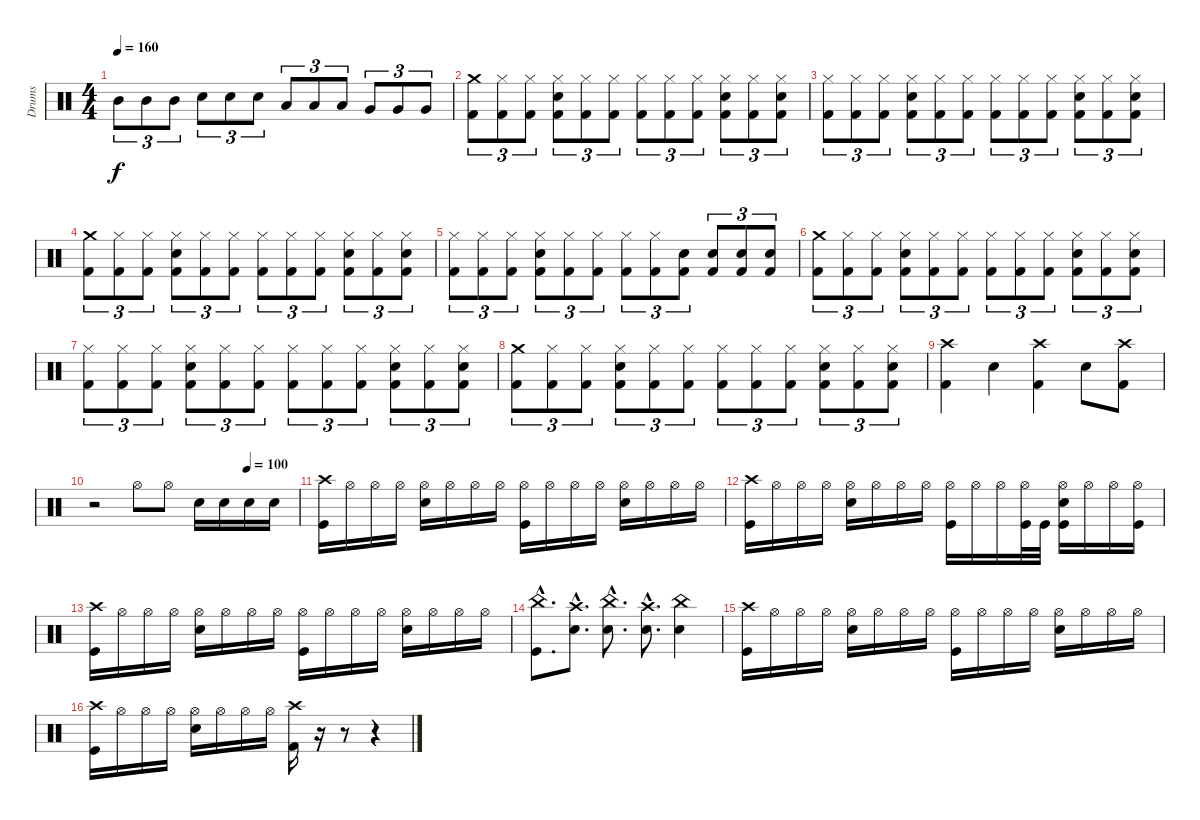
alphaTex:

\track ("Drums" "Drums") {instrument percussion}
\staff {score}
\articulation defaults
\ts (4 4)
\tempo 160
\clef neutral
\ks c "Mid Tom (hit)".8{tu (3 2) dy f} "Mid Tom (hit)".8{tu (3 2)} "Mid Tom (hit)".8{tu (3 2)} "Electric Snare (hit)".8{tu (3 2)} "Electric Snare (hit)".8{tu (3 2)} "Electric Snare (hit)".8{tu (3 2)} "Low Tom (hit)".8{tu (3 2)} "Low Tom (hit)".8{tu (3 2)} "Low Tom (hit)".8{tu (3 2)} "Very Low Tom (hit)".8{tu (3 2)} "Very Low Tom (hit)".8{tu (3 2)} "Very Low Tom (hit)".8{tu (3 2)}
|
("Crash medium (hit)" "Kick (hit) 2").8{tu (3 2)} ("Hi-Hat (closed)" "Kick (hit) 2").8{tu (3 2)} ("Hi-Hat (closed)" "Kick (hit) 2").8{tu (3 2)} ("Hi-Hat (closed)" "Electric Snare (hit)" "Kick (hit) 2").8{tu (3 2)} ("Hi-Hat (closed)" "Kick (hit) 2").8{tu (3 2)} ("Hi-Hat (closed)" "Kick (hit) 2").8{tu (3 2)} ("Hi-Hat (closed)" "Kick (hit) 2").8{tu (3 2)} ("Hi-Hat (closed)" "Kick (hit) 2").8{tu (3 2)} ("Hi-Hat (closed)" "Kick (hit) 2").8{tu (3 2)} ("Hi-Hat (closed)" "Electric Snare (hit)" "Kick (hit) 2").8{tu (3 2)} ("Hi-Hat (closed)" "Kick (hit) 2").8{tu (3 2)} ("Hi-Hat (closed)" "Electric Snare (hit)" "Kick (hit) 2").8{tu (3 2)} |
("Hi-Hat (closed)" "Kick (hit) 2").8{tu (3 2)} ("Hi-Hat (closed)" "Kick (hit) 2").8{tu (3 2)} ("Hi-Hat (closed)" "Kick (hit) 2").8{tu (3 2)} ("Hi-Hat (closed)" "Electric Snare (hit)" "Kick (hit) 2").8{tu (3 2)} ("Hi-Hat (closed)" "Kick (hit) 2").8{tu (3 2)} ("Hi-Hat (closed)" "Kick (hit) 2").8{tu (3 2)} ("Hi-Hat (closed)" "Kick (hit) 2").8{tu (3 2)} ("Hi-Hat (closed)" "Kick (hit) 2").8{tu (3 2)} ("Hi-Hat (closed)" "Kick (hit) 2").8{tu (3 2)} ("Hi-Hat (closed)" "Electric Snare (hit)" "Kick (hit) 2").8{tu (3 2)} ("Hi-Hat (closed)" "Kick (hit) 2").8{tu (3 2)} ("Hi-Hat (closed)" "Electric Snare (hit)" "Kick (hit) 2").8{tu (3 2)} |
("Crash medium (hit)" "Kick (hit) 2").8{tu (3 2)} ("Hi-Hat (closed)" "Kick (hit) 2").8{tu (3 2)} ("Hi-Hat (closed)" "Kick (hit) 2").8{tu (3 2)} ("Hi-Hat (closed)" "Electric Snare (hit)" "Kick (hit) 2").8{tu (3 2)} ("Hi-Hat (closed)" "Kick (hit) 2").8{tu (3 2)} ("Hi-Hat (closed)" "Kick (hit) 2").8{tu (3 2)} ("Hi-Hat (closed)" "Kick (hit) 2").8{tu (3 2)} ("Hi-Hat (closed)" "Kick (hit) 2").8{tu (3 2)} ("Hi-Hat (closed)" "Kick (hit) 2").8{tu (3 2)} ("Hi-Hat (closed)" "Electric Snare (hit)" "Kick (hit) 2").8{tu (3 2)} ("Hi-Hat (closed)" "Kick (hit) 2").8{tu (3 2)} ("Hi-Hat (closed)" "Electric Snare (hit)" "Kick (hit) 2").8{tu (3 2)} |
("Hi-Hat (closed)" "Kick (hit) 2").8{tu (3 2)} ("Hi-Hat (closed)" "Kick (hit) 2").8{tu (3 2)} ("Hi-Hat (closed)" "Kick (hit) 2").8{tu (3 2)} ("Hi-Hat (closed)" "Electric Snare (hit)" "Kick (hit) 2").8{tu (3 2)} ("Hi-Hat (closed)" "Kick (hit) 2").8{tu (3 2)} ("Hi-Hat (closed)" "Kick (hit) 2").8{tu (3 2)} ("Hi-Hat (closed)" "Kick (hit) 2").8{tu (3 2)} ("Hi-Hat (closed)" "Kick (hit) 2").8{tu (3 2)} ("Electric Snare (hit)" "Kick (hit) 2").8{tu (3 2)} ("Electric Snare (hit)" "Kick (hit) 2").8{tu (3 2)} ("Electric Snare (hit)" "Kick (hit) 2").8{tu (3 2)} ("Electric Snare (hit)" "Kick (hit) 2").8{tu (3 2)} |
("Crash medium (hit)" "Kick (hit) 2").8{tu (3 2)} ("Hi-Hat (closed)" "Kick (hit) 2").8{tu (3 2)} ("Hi-Hat (closed)" "Kick (hit) 2").8{tu (3 2)} ("Hi-Hat (closed)" "Electric Snare (hit)" "Kick (hit) 2").8{tu (3 2)} ("Hi-Hat (closed)" "Kick (hit) 2").8{tu (3 2)} ("Hi-Hat (closed)" "Kick (hit) 2").8{tu (3 2)} ("Hi-Hat (closed)" "Kick (hit) 2").8{tu (3 2)} ("Hi-Hat (closed)" "Kick (hit) 2").8{tu (3 2)} ("Hi-Hat (closed)" "Kick (hit) 2").8{tu (3 2)} ("Hi-Hat (closed)" "Electric Snare (hit)" "Kick (hit) 2").8{tu (3 2)} ("Hi-Hat (closed)" "Kick (hit) 2").8{tu (3 2)} ("Hi-Hat (closed)" "Electric Snare (hit)" "Kick (hit) 2").8{tu (3 2)} |
("Hi-Hat (closed)" "Kick (hit) 2").8{tu (3 2)} ("Hi-Hat (closed)" "Kick (hit) 2").8{tu (3 2)} ("Hi-Hat (closed)" "Kick (hit) 2").8{tu (3 2)} ("Hi-Hat (closed)" "Electric Snare (hit)" "Kick (hit) 2").8{tu (3 2)} ("Hi-Hat (closed)" "Kick (hit) 2").8{tu (3 2)} ("Hi-Hat (closed)" "Kick (hit) 2").8{tu (3 2)} ("Hi-Hat (closed)" "Kick (hit) 2").8{tu (3 2)} ("Hi-Hat (closed)" "Kick (hit) 2").8{tu (3 2)} ("Hi-Hat (closed)" "Kick (hit) 2").8{tu (3 2)} ("Hi-Hat (closed)" "Electric Snare (hit)" "Kick (hit) 2").8{tu (3 2)} ("Hi-Hat (closed)" "Kick (hit) 2").8{tu (3 2)} ("Hi-Hat (closed)" "Electric Snare (hit)" "Kick (hit) 2").8{tu (3 2)} |
("Crash medium (hit)" "Kick (hit) 2").8{tu (3 2)} ("Hi-Hat (closed)" "Kick (hit) 2").8{tu (3 2)} ("Hi-Hat (closed)" "Kick (hit) 2").8{tu (3 2)} ("Hi-Hat (closed)" "Electric Snare (hit)" "Kick (hit) 2").8{tu (3 2)} ("Hi-Hat (closed)" "Kick (hit) 2").8{tu (3 2)} ("Hi-Hat (closed)" "Kick (hit) 2").8{tu (3 2)} ("Hi-Hat (closed)" "Kick (hit) 2").8{tu (3 2)} ("Hi-Hat (closed)" "Kick (hit) 2").8{tu (3 2)} ("Hi-Hat (closed)" "Kick (hit) 2").8{tu (3 2)} ("Hi-Hat (closed)" "Electric Snare (hit)" "Kick (hit) 2").8{tu (3 2)} ("Hi-Hat (closed)" "Kick (hit) 2").8{tu (3 2)} ("Hi-Hat (closed)" "Electric Snare (hit)" "Kick (hit) 2").8{tu (3 2)} |
("Crash high (hit)" "Kick (hit) 2").4 "Electric Snare (hit)".4 ("Crash high (hit)" "Kick (hit) 2").4 "Electric Snare (hit)".8 ("Crash high (hit)" "Kick (hit) 2").8 |
\tempo (100 0.75)
r.2 "Hi-Hat (open)".8 "Hi-Hat (open)".8 "Electric Snare (hit)".16 "Electric Snare (hit)".16 "Electric Snare (hit)".16 "Electric Snare (hit)".16 |
("Crash high (hit)" "Kick (hit)").16 "Hi-Hat (open)".16 "Hi-Hat (open)".16 "Hi-Hat (open)".16 ("Hi-Hat (open)" "Electric Snare (hit)").16 "Hi-Hat (open)".16 "Hi-Hat (open)".16 "Hi-Hat (open)".16 ("Hi-Hat (open)" "Kick (hit)").16 "Hi-Hat (open)".16 "Hi-Hat (open)".16 "Hi-Hat (open)".16 ("Hi-Hat (open)" "Electric Snare (hit)").16 "Hi-Hat (open)".16 "Hi-Hat (open)".16 "Hi-Hat (open)".16 |
("Crash high (hit)" "Kick (hit)").16 "Hi-Hat (open)".16 "Hi-Hat (open)".16 "Hi-Hat (open)".16 ("Hi-Hat (open)" "Electric Snare (hit)").16 "Hi-Hat (open)".16 "Hi-Hat (open)".16 "Hi-Hat (open)".16 ("Hi-Hat (open)" "Kick (hit)").16 "Hi-Hat (open)".16 "Hi-Hat (open)".16 ("Hi-Hat (open)" "Kick (hit)").32 "Kick (hit)".32 ("Hi-Hat (open)" "Electric Snare (hit)" "Kick (hit)").16 "Hi-Hat (open)".16 "Hi-Hat (open)".16 ("Hi-Hat (open)" "Kick (hit)").16 |
("Crash high (hit)" "Kick (hit)").16 "Hi-Hat (open)".16 "Hi-Hat (open)".16 "Hi-Hat (open)".16 ("Hi-Hat (open)" "Electric Snare (hit)").16 "Hi-Hat (open)".16 "Hi-Hat (open)".16 "Hi-Hat (open)".16 ("Hi-Hat (open)" "Kick (hit)").16 "Hi-Hat (open)".16 "Hi-Hat (open)".16 "Hi-Hat (open)".16 ("Hi-Hat (open)" "Electric Snare (hit)").16 "Hi-Hat (open)".16 "Hi-Hat (open)".16 "Hi-Hat (open)".16 |
("China (hit)"{hac} "Kick (hit)"{hac}).8{d} ("Crash high (hit)"{hac} "Electric Snare (hit)"{hac}).8{d} ("China (hit)"{hac} "Electric Snare (hit)"{hac}).8{d} ("Crash high (hit)"{hac} "Electric Snare (hit)"{hac}).8{d} ("China (hit)" "Electric Snare (hit)").4 |
("Crash high (hit)" "Kick (hit)").16 "Hi-Hat (open)".16 "Hi-Hat (open)".16 "Hi-Hat (open)".16 ("Hi-Hat (open)" "Electric Snare (hit)").16 "Hi-Hat (open)".16 "Hi-Hat (open)".16 "Hi-Hat (open)".16 ("Hi-Hat (open)" "Kick (hit)").16 "Hi-Hat (open)".16 "Hi-Hat (open)".16 "Hi-Hat (open)".16 ("Hi-Hat (open)" "Electric Snare (hit)").16 "Hi-Hat (open)".16 "Hi-Hat (open)".16 "Hi-Hat (open)".16 |
("Crash high (hit)" "Kick (hit)").16 "Hi-Hat (open)".16 "Hi-Hat (open)".16 "Hi-Hat (open)".16 ("Hi-Hat (open)" "Electric Snare (hit)").16 "Hi-Hat (open)".16 "Hi-Hat (open)".16 "Hi-Hat (open)".16 ("Crash high (hit)" "Kick (hit) 2").16 r.16 r.8 r.4
